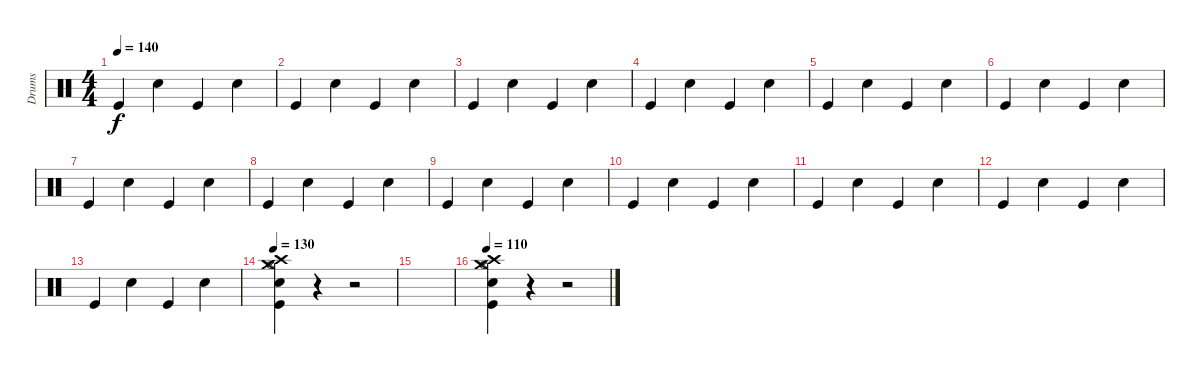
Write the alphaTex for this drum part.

\track ("Drums" "Drums") {instrument percussion}
\staff {score}
\articulation defaults
\ts (4 4)
\tempo 140
\clef neutral
\ks c "Kick (hit)".4{dy f} "Snare (hit) 2".4 "Kick (hit)".4 "Snare (hit) 2".4
|
"Kick (hit)".4 "Snare (hit) 2".4 "Kick (hit)".4 "Snare (hit) 2".4 |
"Kick (hit)".4 "Snare (hit) 2".4 "Kick (hit)".4 "Snare (hit) 2".4 |
"Kick (hit)".4 "Snare (hit) 2".4 "Kick (hit)".4 "Snare (hit) 2".4 |
"Kick (hit)".4 "Snare (hit) 2".4 "Kick (hit)".4 "Snare (hit) 2".4 |
"Kick (hit)".4 "Snare (hit) 2".4 "Kick (hit)".4 "Snare (hit) 2".4 |
"Kick (hit)".4 "Snare (hit) 2".4 "Kick (hit)".4 "Snare (hit) 2".4 |
"Kick (hit)".4 "Snare (hit) 2".4 "Kick (hit)".4 "Snare (hit) 2".4 |
"Kick (hit)".4 "Snare (hit) 2".4 "Kick (hit)".4 "Snare (hit) 2".4 |
"Kick (hit)".4 "Snare (hit) 2".4 "Kick (hit)".4 "Snare (hit) 2".4 |
"Kick (hit)".4 "Snare (hit) 2".4 "Kick (hit)".4 "Snare (hit) 2".4 |
"Kick (hit)".4 "Snare (hit) 2".4 "Kick (hit)".4 "Snare (hit) 2".4 |
"Kick (hit)".4 "Snare (hit) 2".4 "Kick (hit)".4 "Snare (hit) 2".4 |
\tempo 130
("Snare (hit) 2" "Kick (hit)" "Hi-Hat (open)" "Crash high (hit)" "Crash medium (hit)").4 r.4 r.2 |
|
\tempo 110
("Snare (hit) 2" "Kick (hit)" "Hi-Hat (open)" "Crash high (hit)" "Crash medium (hit)").4 r.4 r.2
